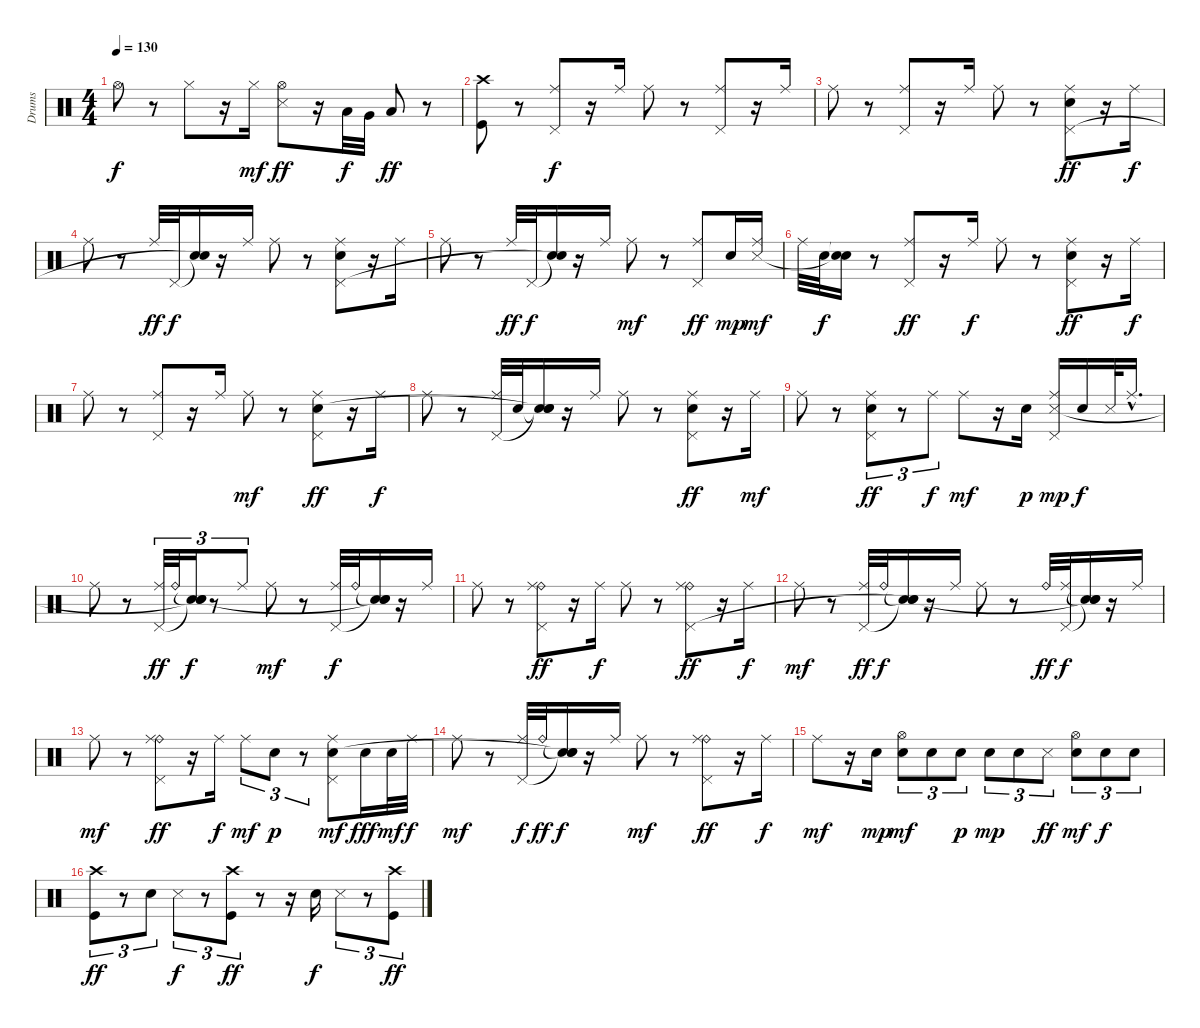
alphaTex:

\track ("Drums" "Drums") {instrument percussion}
\staff {score}
\articulation defaults
\ts (4 4)
\tempo 130
\clef neutral
\ks c "Hi-Hat (open)".8{dy f}
r.8 "Hi-Hat (closed)".8 r.16 "Hi-Hat (closed)".16{dy mf} ("Hi-Hat (open)" "Snare (side stick) 3").8{dy ff} r.16 "Low Tom (hit)".32{dy f} "Very Low Tom (hit)".32 "Low Floor Tom (hit)".8{dy ff} r.8 |
("Crash high (hit)" "Kick (hit)").8 r.8 ("Ride (middle)" "Pedal Hi-Hat (hit)").8{dy f} r.16 "Ride (middle)".16 "Ride (middle)".8 r.8 ("Ride (middle)" "Pedal Hi-Hat (hit)").8 r.16 "Ride (middle)".16 |
"Ride (middle)".8 r.8 ("Ride (middle)" "Pedal Hi-Hat (hit)").8 r.16 "Ride (middle)".16 "Ride (middle)".8 r.8 ("Ride (middle)" "Pedal Hi-Hat (hit)" "Snare (hit) 2").8{dy ff} r.16 "Ride (middle)".16{dy f} |
"Ride (middle)".8 r.8 "Ride (middle)".32{dy ff} "Pedal Hi-Hat (hit)".32{dy f} ("Snare (hit)"{t} "Snare (hit)"{t}).16 r.16 "Ride (middle)".16 "Ride (middle)".8 r.8 ("Ride (middle)" "Pedal Hi-Hat (hit)" "Snare (hit) 2").8 r.16 "Ride (middle)".16 |
"Ride (middle)".8 r.8 "Ride (middle)".32{dy ff} "Pedal Hi-Hat (hit)".32{dy f} ("Snare (hit)"{t} "Snare (hit)"{t}).16 r.16 "Ride (middle)".16 "Ride (middle)".8{dy mf} r.8 ("Ride (middle)" "Pedal Hi-Hat (hit)").8{dy ff} "Snare (hit) 2".16{dy mp} ("Ride (middle)" "Snare (side stick) 3").16{dy mf} |
"Ride (middle)".32 "Snare (hit) 2".32{dy f} ("Snare (hit)"{t} "Snare (hit)"{t}).16 r.8 ("Ride (middle)" "Pedal Hi-Hat (hit)").8{dy ff} r.16 "Ride (middle)".16{dy f} "Ride (middle)".8 r.8 ("Ride (middle)" "Pedal Hi-Hat (hit)" "Snare (hit) 2").8{dy ff} r.16 "Ride (middle)".16{dy f} |
"Ride (middle)".8 r.8 ("Ride (middle)" "Pedal Hi-Hat (hit)").8 r.16 "Ride (middle)".16 "Ride (middle)".8{dy mf} r.8 ("Ride (middle)" "Pedal Hi-Hat (hit)" "Snare (hit) 2").8{dy ff} r.16 "Ride (middle)".16{dy f} |
"Ride (middle)".8 r.8 ("Ride (middle)" "Pedal Hi-Hat (hit)").32 "Snare (hit) 2".32 ("Snare (hit)"{t} "Snare (hit)"{t} "Snare (hit)"{t}).16 r.16 "Ride (middle)".16 "Ride (middle)".8 r.8 ("Ride (middle)" "Pedal Hi-Hat (hit)" "Snare (hit) 2").8{dy ff} r.16 "Ride (middle)".16{dy mf} |
"Ride (middle)".8 r.8 ("Ride (middle)" "Pedal Hi-Hat (hit)" "Snare (hit) 2").8{tu (3 2) dy ff} r.8{tu (3 2)} "Ride (middle)".8{tu (3 2) dy f} "Ride (middle)".8{dy mf} r.16 "Snare (hit) 2".16{dy p} ("Ride (middle)" "Pedal Hi-Hat (hit)" "Snare (side stick) 3").16{dy mp} "Snare (hit) 2".16{dy f} "Snare (side stick) 3".32 "Ride (middle)"{hac}.16{d} |
"Ride (middle)".8 r.8 ("Ride (middle)" "Pedal Hi-Hat (hit)").32{tu (3 2) dy ff} "Ride (bell)".32{tu (3 2)} ("Snare (hit)"{t} "Snare (hit)"{t} "Snare (hit)"{t}).16{tu (3 2) dy f} r.8{tu (3 2)} "Ride (middle)".8{tu (3 2)} "Ride (middle)".8{dy mf} r.8 ("Ride (middle)" "Pedal Hi-Hat (hit)").32{dy f} "Ride (bell)".32 ("Snare (hit)"{t} "Snare (hit)"{t} "Snare (hit)"{t}).16 r.16 "Ride (middle)".16 |
"Ride (middle)".8 r.8 ("Ride (bell)" "Ride (middle)" "Pedal Hi-Hat (hit)").8{dy ff} r.16 "Ride (middle)".16{dy f} "Ride (middle)".8 r.8 ("Ride (bell)" "Ride (middle)" "Pedal Hi-Hat (hit)").8{dy ff} r.16 "Ride (middle)".16{dy f} |
"Ride (middle)".8{dy mf} r.8 ("Ride (middle)" "Pedal Hi-Hat (hit)").32{dy ff} "Ride (bell)".32{dy f} ("Snare (hit)"{t} "Snare (hit)"{t} "Snare (hit)"{t}).16 r.16 "Ride (middle)".16 "Ride (middle)".8 r.8 "Ride (bell)".32{dy ff} ("Ride (middle)" "Pedal Hi-Hat (hit)").32{dy f} ("Snare (hit)"{t} "Snare (hit)"{t} "Snare (hit)"{t}).16 r.16 "Ride (middle)".16 |
"Ride (middle)".8{dy mf} r.8 ("Ride (bell)" "Ride (middle)" "Pedal Hi-Hat (hit)").8{dy ff} r.16 "Ride (middle)".16{dy f} "Ride (middle)".8{tu (3 2) dy mf} "Snare (hit) 2".8{tu (3 2) dy p} r.8{tu (3 2)} ("Ride (middle)" "Pedal Hi-Hat (hit)" "Snare (hit) 2").8{dy mf} "Hand Clap (hit)".16{dy fff} "Snare (hit) 2".32{dy mf} "Ride (middle)".32{dy f} |
"Ride (middle)".8{dy mf} r.8 ("Ride (middle)" "Pedal Hi-Hat (hit)").32{dy f} "Ride (bell)".32{dy ff} ("Snare (hit)"{t} "Snare (hit)"{t} "Snare (hit)"{t}).16{dy f} r.16 "Ride (middle)".16 "Ride (middle)".8{dy mf} r.8 ("Ride (bell)" "Ride (middle)" "Pedal Hi-Hat (hit)").8{dy ff} r.16 "Ride (middle)".16{dy f} |
"Ride (middle)".8{dy mf} r.16 "Snare (hit) 2".16{dy mp} ("Hi-Hat (open)" "Snare (hit) 2").8{tu (3 2) dy mf} "Snare (hit) 2".8{tu (3 2)} "Snare (hit) 2".8{tu (3 2) dy p} "Snare (hit) 2".8{tu (3 2) dy mp} "Snare (hit) 2".8{tu (3 2)} "Snare (side stick) 3".8{tu (3 2) dy ff} ("Hi-Hat (open)" "Snare (hit) 2").8{tu (3 2) dy mf} "Snare (hit) 2".8{tu (3 2) dy f} "Snare (hit) 2".8{tu (3 2)} |
("Crash high (hit)" "Kick (hit)").8{tu (3 2) dy ff} r.8{tu (3 2)} "Snare (hit) 2".8{tu (3 2)} "Snare (side stick) 3".8{tu (3 2) dy f} r.8{tu (3 2)} ("Crash high (hit)" "Kick (hit)").8{tu (3 2) dy ff} r.8 r.16 "Snare (hit) 2".16{dy f} "Snare (side stick) 3".8{tu (3 2)} r.8{tu (3 2)} ("Crash high (hit)" "Kick (hit)").8{tu (3 2) dy ff}
